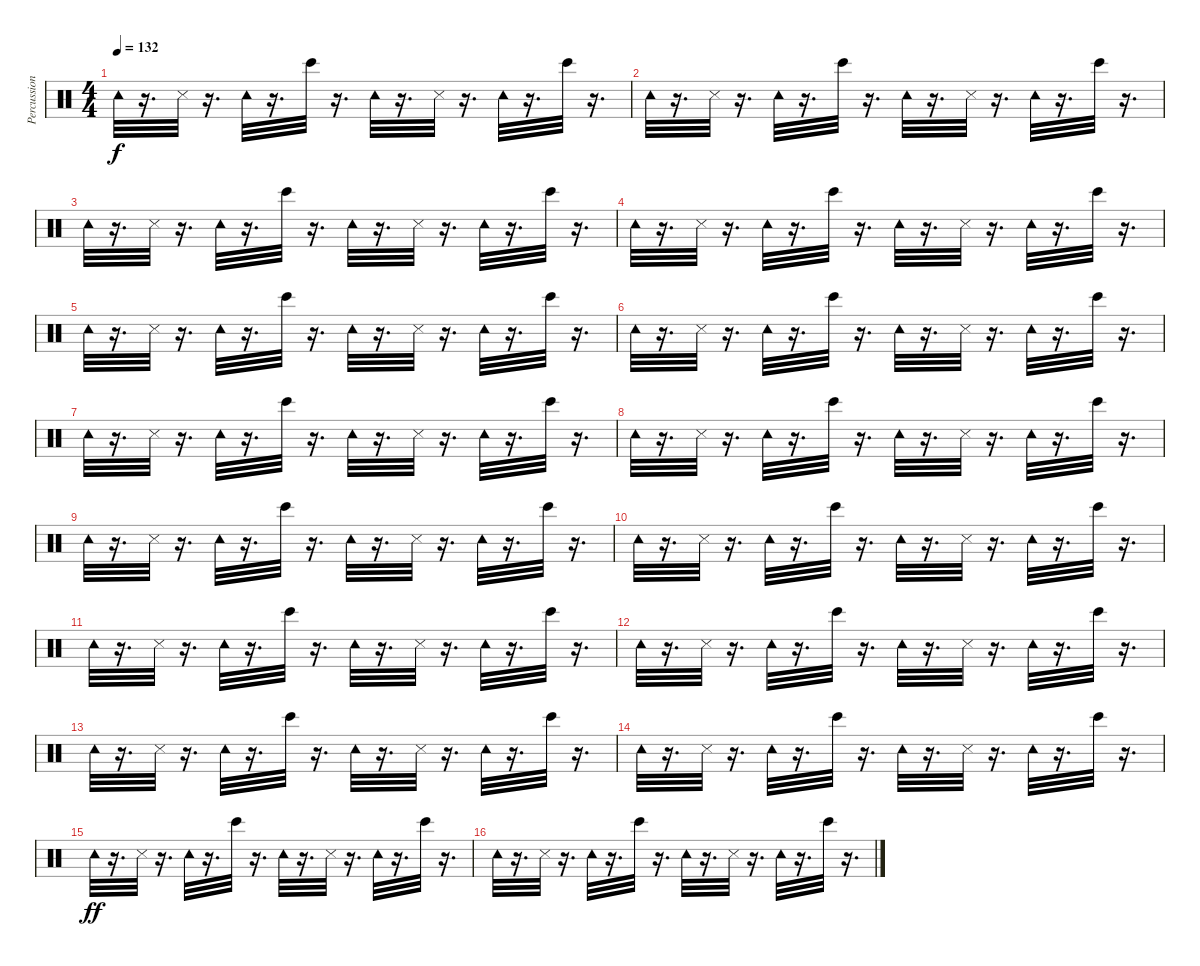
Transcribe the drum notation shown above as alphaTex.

\track ("Percussion 2" "Percussion") {instrument percussion}
\staff {score}
\articulation defaults
\ts (4 4)
\tempo 132
\clef neutral
\ks c "Tambourine (hit)".32{dy f}
r.16{d} "Metronome (hit)".32 r.16{d} "Tambourine (hit)".32 r.16{d} "Bongo High (hit)".32 r.16{d} "Tambourine (hit)".32 r.16{d} "Metronome (hit)".32 r.16{d} "Tambourine (hit)".32 r.16{d} "Bongo High (hit)".32 r.16{d} |
"Tambourine (hit)".32 r.16{d} "Metronome (hit)".32 r.16{d} "Tambourine (hit)".32 r.16{d} "Bongo High (hit)".32 r.16{d} "Tambourine (hit)".32 r.16{d} "Metronome (hit)".32 r.16{d} "Tambourine (hit)".32 r.16{d} "Bongo High (hit)".32 r.16{d} |
"Tambourine (hit)".32 r.16{d} "Metronome (hit)".32 r.16{d} "Tambourine (hit)".32 r.16{d} "Bongo High (hit)".32 r.16{d} "Tambourine (hit)".32 r.16{d} "Metronome (hit)".32 r.16{d} "Tambourine (hit)".32 r.16{d} "Bongo High (hit)".32 r.16{d} |
"Tambourine (hit)".32 r.16{d} "Metronome (hit)".32 r.16{d} "Tambourine (hit)".32 r.16{d} "Bongo High (hit)".32 r.16{d} "Tambourine (hit)".32 r.16{d} "Metronome (hit)".32 r.16{d} "Tambourine (hit)".32 r.16{d} "Bongo High (hit)".32 r.16{d} |
"Tambourine (hit)".32 r.16{d} "Metronome (hit)".32 r.16{d} "Tambourine (hit)".32 r.16{d} "Bongo High (hit)".32 r.16{d} "Tambourine (hit)".32 r.16{d} "Metronome (hit)".32 r.16{d} "Tambourine (hit)".32 r.16{d} "Bongo High (hit)".32 r.16{d} |
"Tambourine (hit)".32 r.16{d} "Metronome (hit)".32 r.16{d} "Tambourine (hit)".32 r.16{d} "Bongo High (hit)".32 r.16{d} "Tambourine (hit)".32 r.16{d} "Metronome (hit)".32 r.16{d} "Tambourine (hit)".32 r.16{d} "Bongo High (hit)".32 r.16{d} |
"Tambourine (hit)".32 r.16{d} "Metronome (hit)".32 r.16{d} "Tambourine (hit)".32 r.16{d} "Bongo High (hit)".32 r.16{d} "Tambourine (hit)".32 r.16{d} "Metronome (hit)".32 r.16{d} "Tambourine (hit)".32 r.16{d} "Bongo High (hit)".32 r.16{d} |
"Tambourine (hit)".32 r.16{d} "Metronome (hit)".32 r.16{d} "Tambourine (hit)".32 r.16{d} "Bongo High (hit)".32 r.16{d} "Tambourine (hit)".32 r.16{d} "Metronome (hit)".32 r.16{d} "Tambourine (hit)".32 r.16{d} "Bongo High (hit)".32 r.16{d} |
"Tambourine (hit)".32 r.16{d} "Metronome (hit)".32 r.16{d} "Tambourine (hit)".32 r.16{d} "Bongo High (hit)".32 r.16{d} "Tambourine (hit)".32 r.16{d} "Metronome (hit)".32 r.16{d} "Tambourine (hit)".32 r.16{d} "Bongo High (hit)".32 r.16{d} |
"Tambourine (hit)".32 r.16{d} "Metronome (hit)".32 r.16{d} "Tambourine (hit)".32 r.16{d} "Bongo High (hit)".32 r.16{d} "Tambourine (hit)".32 r.16{d} "Metronome (hit)".32 r.16{d} "Tambourine (hit)".32 r.16{d} "Bongo High (hit)".32 r.16{d} |
"Tambourine (hit)".32 r.16{d} "Metronome (hit)".32 r.16{d} "Tambourine (hit)".32 r.16{d} "Bongo High (hit)".32 r.16{d} "Tambourine (hit)".32 r.16{d} "Metronome (hit)".32 r.16{d} "Tambourine (hit)".32 r.16{d} "Bongo High (hit)".32 r.16{d} |
"Tambourine (hit)".32 r.16{d} "Metronome (hit)".32 r.16{d} "Tambourine (hit)".32 r.16{d} "Bongo High (hit)".32 r.16{d} "Tambourine (hit)".32 r.16{d} "Metronome (hit)".32 r.16{d} "Tambourine (hit)".32 r.16{d} "Bongo High (hit)".32 r.16{d} |
"Tambourine (hit)".32 r.16{d} "Metronome (hit)".32 r.16{d} "Tambourine (hit)".32 r.16{d} "Bongo High (hit)".32 r.16{d} "Tambourine (hit)".32 r.16{d} "Metronome (hit)".32 r.16{d} "Tambourine (hit)".32 r.16{d} "Bongo High (hit)".32 r.16{d} |
"Tambourine (hit)".32 r.16{d} "Metronome (hit)".32 r.16{d} "Tambourine (hit)".32 r.16{d} "Bongo High (hit)".32 r.16{d} "Tambourine (hit)".32 r.16{d} "Metronome (hit)".32 r.16{d} "Tambourine (hit)".32 r.16{d} "Bongo High (hit)".32 r.16{d} |
"Tambourine (hit)".32{dy ff} r.16{d} "Metronome (hit)".32 r.16{d} "Tambourine (hit)".32 r.16{d} "Bongo High (hit)".32 r.16{d} "Tambourine (hit)".32 r.16{d} "Metronome (hit)".32 r.16{d} "Tambourine (hit)".32 r.16{d} "Bongo High (hit)".32 r.16{d} |
"Tambourine (hit)".32 r.16{d} "Metronome (hit)".32 r.16{d} "Tambourine (hit)".32 r.16{d} "Bongo High (hit)".32 r.16{d} "Tambourine (hit)".32 r.16{d} "Metronome (hit)".32 r.16{d} "Tambourine (hit)".32 r.16{d} "Bongo High (hit)".32 r.16{d}
